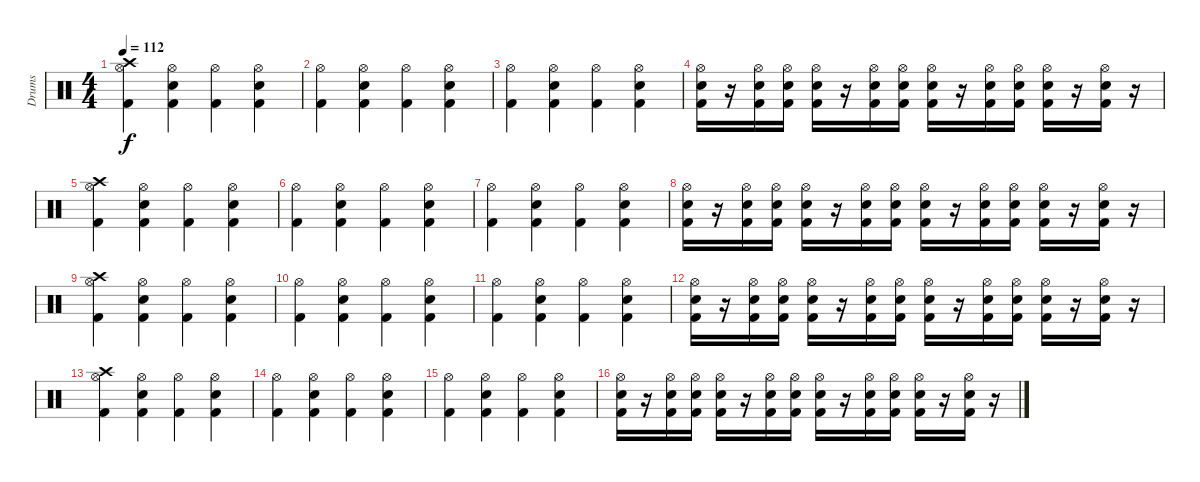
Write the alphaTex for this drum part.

\track ("Drums" "Drums") {instrument percussion}
\staff {score}
\articulation defaults
\ts (4 4)
\tempo 112
\clef neutral
\ks c
("Crash high (hit)" "Hi-Hat (open)" "Kick (hit) 2").4{dy f} ("Electric Snare (hit)" "Hi-Hat (open)" "Kick (hit) 2").4 ("Hi-Hat (open)" "Kick (hit) 2").4 ("Electric Snare (hit)" "Hi-Hat (open)" "Kick (hit) 2").4 |
("Hi-Hat (open)" "Kick (hit) 2").4 ("Electric Snare (hit)" "Hi-Hat (open)" "Kick (hit) 2").4 ("Hi-Hat (open)" "Kick (hit) 2").4 ("Electric Snare (hit)" "Hi-Hat (open)" "Kick (hit) 2").4 |
("Hi-Hat (open)" "Kick (hit) 2").4 ("Electric Snare (hit)" "Hi-Hat (open)" "Kick (hit) 2").4 ("Hi-Hat (open)" "Kick (hit) 2").4 ("Electric Snare (hit)" "Hi-Hat (open)" "Kick (hit) 2").4 |
("Hi-Hat (open)" "Electric Snare (hit)" "Kick (hit) 2").16 r.16 ("Hi-Hat (open)" "Snare (hit) 2" "Kick (hit) 2").16 ("Hi-Hat (open)" "Snare (hit) 2" "Kick (hit) 2").16 ("Hi-Hat (open)" "Electric Snare (hit)" "Kick (hit) 2").16 r.16 ("Hi-Hat (open)" "Snare (hit) 2" "Kick (hit) 2").16 ("Hi-Hat (open)" "Snare (hit) 2" "Kick (hit) 2").16 ("Hi-Hat (open)" "Electric Snare (hit)" "Kick (hit) 2").16 r.16 ("Hi-Hat (open)" "Snare (hit) 2" "Kick (hit) 2").16 ("Hi-Hat (open)" "Snare (hit) 2" "Kick (hit) 2").16 ("Hi-Hat (open)" "Electric Snare (hit)" "Kick (hit) 2").16 r.16 ("Hi-Hat (open)" "Snare (hit) 2" "Kick (hit) 2").16 r.16 |
("Crash high (hit)" "Hi-Hat (open)" "Kick (hit) 2").4 ("Electric Snare (hit)" "Hi-Hat (open)" "Kick (hit) 2").4 ("Hi-Hat (open)" "Kick (hit) 2").4 ("Electric Snare (hit)" "Hi-Hat (open)" "Kick (hit) 2").4 |
("Hi-Hat (open)" "Kick (hit) 2").4 ("Electric Snare (hit)" "Hi-Hat (open)" "Kick (hit) 2").4 ("Hi-Hat (open)" "Kick (hit) 2").4 ("Electric Snare (hit)" "Hi-Hat (open)" "Kick (hit) 2").4 |
("Hi-Hat (open)" "Kick (hit) 2").4 ("Electric Snare (hit)" "Hi-Hat (open)" "Kick (hit) 2").4 ("Hi-Hat (open)" "Kick (hit) 2").4 ("Electric Snare (hit)" "Hi-Hat (open)" "Kick (hit) 2").4 |
("Hi-Hat (open)" "Electric Snare (hit)" "Kick (hit) 2").16 r.16 ("Hi-Hat (open)" "Snare (hit) 2" "Kick (hit) 2").16 ("Hi-Hat (open)" "Snare (hit) 2" "Kick (hit) 2").16 ("Hi-Hat (open)" "Electric Snare (hit)" "Kick (hit) 2").16 r.16 ("Hi-Hat (open)" "Snare (hit) 2" "Kick (hit) 2").16 ("Hi-Hat (open)" "Snare (hit) 2" "Kick (hit) 2").16 ("Hi-Hat (open)" "Electric Snare (hit)" "Kick (hit) 2").16 r.16 ("Hi-Hat (open)" "Snare (hit) 2" "Kick (hit) 2").16 ("Hi-Hat (open)" "Snare (hit) 2" "Kick (hit) 2").16 ("Hi-Hat (open)" "Electric Snare (hit)" "Kick (hit) 2").16 r.16 ("Hi-Hat (open)" "Snare (hit) 2" "Kick (hit) 2").16 r.16 |
("Crash high (hit)" "Hi-Hat (open)" "Kick (hit) 2").4 ("Electric Snare (hit)" "Hi-Hat (open)" "Kick (hit) 2").4 ("Hi-Hat (open)" "Kick (hit) 2").4 ("Electric Snare (hit)" "Hi-Hat (open)" "Kick (hit) 2").4 |
("Hi-Hat (open)" "Kick (hit) 2").4 ("Electric Snare (hit)" "Hi-Hat (open)" "Kick (hit) 2").4 ("Hi-Hat (open)" "Kick (hit) 2").4 ("Electric Snare (hit)" "Hi-Hat (open)" "Kick (hit) 2").4 |
("Hi-Hat (open)" "Kick (hit) 2").4 ("Electric Snare (hit)" "Hi-Hat (open)" "Kick (hit) 2").4 ("Hi-Hat (open)" "Kick (hit) 2").4 ("Electric Snare (hit)" "Hi-Hat (open)" "Kick (hit) 2").4 |
("Hi-Hat (open)" "Electric Snare (hit)" "Kick (hit) 2").16 r.16 ("Hi-Hat (open)" "Snare (hit) 2" "Kick (hit) 2").16 ("Hi-Hat (open)" "Snare (hit) 2" "Kick (hit) 2").16 ("Hi-Hat (open)" "Electric Snare (hit)" "Kick (hit) 2").16 r.16 ("Hi-Hat (open)" "Snare (hit) 2" "Kick (hit) 2").16 ("Hi-Hat (open)" "Snare (hit) 2" "Kick (hit) 2").16 ("Hi-Hat (open)" "Electric Snare (hit)" "Kick (hit) 2").16 r.16 ("Hi-Hat (open)" "Snare (hit) 2" "Kick (hit) 2").16 ("Hi-Hat (open)" "Snare (hit) 2" "Kick (hit) 2").16 ("Hi-Hat (open)" "Electric Snare (hit)" "Kick (hit) 2").16 r.16 ("Hi-Hat (open)" "Snare (hit) 2" "Kick (hit) 2").16 r.16 |
("Crash high (hit)" "Hi-Hat (open)" "Kick (hit) 2").4 ("Electric Snare (hit)" "Hi-Hat (open)" "Kick (hit) 2").4 ("Hi-Hat (open)" "Kick (hit) 2").4 ("Electric Snare (hit)" "Hi-Hat (open)" "Kick (hit) 2").4 |
("Hi-Hat (open)" "Kick (hit) 2").4 ("Electric Snare (hit)" "Hi-Hat (open)" "Kick (hit) 2").4 ("Hi-Hat (open)" "Kick (hit) 2").4 ("Electric Snare (hit)" "Hi-Hat (open)" "Kick (hit) 2").4 |
("Hi-Hat (open)" "Kick (hit) 2").4 ("Electric Snare (hit)" "Hi-Hat (open)" "Kick (hit) 2").4 ("Hi-Hat (open)" "Kick (hit) 2").4 ("Electric Snare (hit)" "Hi-Hat (open)" "Kick (hit) 2").4 |
("Hi-Hat (open)" "Electric Snare (hit)" "Kick (hit) 2").16 r.16 ("Hi-Hat (open)" "Snare (hit) 2" "Kick (hit) 2").16 ("Hi-Hat (open)" "Snare (hit) 2" "Kick (hit) 2").16 ("Hi-Hat (open)" "Electric Snare (hit)" "Kick (hit) 2").16 r.16 ("Hi-Hat (open)" "Snare (hit) 2" "Kick (hit) 2").16 ("Hi-Hat (open)" "Snare (hit) 2" "Kick (hit) 2").16 ("Hi-Hat (open)" "Electric Snare (hit)" "Kick (hit) 2").16 r.16 ("Hi-Hat (open)" "Snare (hit) 2" "Kick (hit) 2").16 ("Hi-Hat (open)" "Snare (hit) 2" "Kick (hit) 2").16 ("Hi-Hat (open)" "Electric Snare (hit)" "Kick (hit) 2").16 r.16 ("Hi-Hat (open)" "Snare (hit) 2" "Kick (hit) 2").16 r.16
